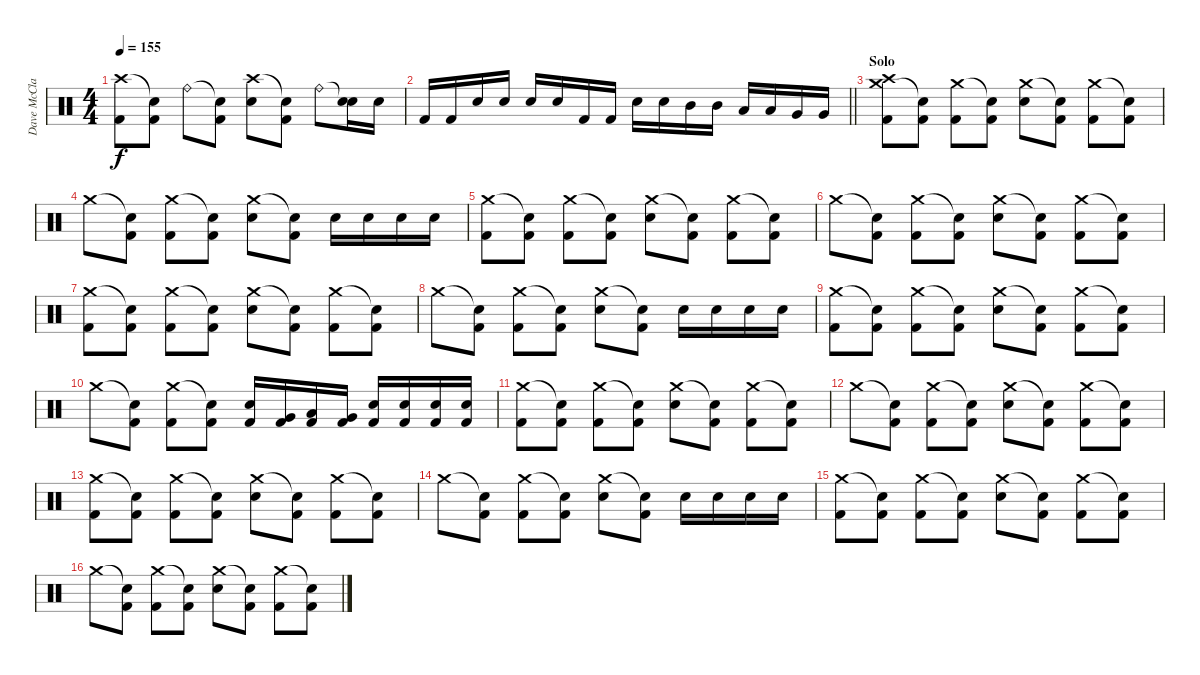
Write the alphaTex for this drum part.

\track ("Dave McClain (Drums)" "Dave McCla") {instrument percussion}
\staff {score}
\articulation defaults
\ts (4 4)
\tempo 155
\clef neutral
\ks c
("Crash high (hit)" "Kick (hit) 2").8{dy f} ("Snare (hit)"{t} "Kick (hit) 2").8 "Ride (bell)".8 ("Snare (hit)"{t} "Kick (hit) 2").8 ("Crash high (hit)" "Electric Snare (hit)").8 ("Snare (hit)"{t} "Kick (hit) 2").8 "Ride (bell)".8 ("Snare (hit)"{t} "Electric Snare (hit)").16 "Electric Snare (hit)".16 |
\barLineRight lightlight "Kick (hit) 2".16 "Kick (hit) 2".16 "Electric Snare (hit)".16 "Electric Snare (hit)".16 "Electric Snare (hit)".16 "Electric Snare (hit)".16 "Kick (hit) 2".16 "Kick (hit) 2".16 "Electric Snare (hit)".16 "Electric Snare (hit)".16 "Mid Tom (hit)".16 "Mid Tom (hit)".16 "Low Tom (hit)".16 "Low Tom (hit)".16 "Very Low Tom (hit)".16 "Very Low Tom (hit)".16
|
\section ("" "Solo")
("Crash medium (hit)" "Crash high (hit)" "Kick (hit) 2").8 ("Snare (hit)"{t} "Kick (hit) 2").8 ("Crash medium (hit)" "Kick (hit) 2").8 ("Snare (hit)"{t} "Kick (hit) 2").8 ("Crash medium (hit)" "Electric Snare (hit)").8 ("Snare (hit)"{t} "Kick (hit) 2").8 ("Crash medium (hit)" "Kick (hit) 2").8 ("Snare (hit)"{t} "Kick (hit) 2").8 |
"Crash medium (hit)".8 ("Snare (hit)"{t} "Kick (hit) 2").8 ("Crash medium (hit)" "Kick (hit) 2").8 ("Snare (hit)"{t} "Kick (hit) 2").8 ("Crash medium (hit)" "Electric Snare (hit)").8 ("Snare (hit)"{t} "Kick (hit) 2").8 "Electric Snare (hit)".16 "Electric Snare (hit)".16 "Electric Snare (hit)".16 "Electric Snare (hit)".16 |
("Crash medium (hit)" "Kick (hit) 2").8 ("Snare (hit)"{t} "Kick (hit) 2").8 ("Crash medium (hit)" "Kick (hit) 2").8 ("Snare (hit)"{t} "Kick (hit) 2").8 ("Crash medium (hit)" "Electric Snare (hit)").8 ("Snare (hit)"{t} "Kick (hit) 2").8 ("Crash medium (hit)" "Kick (hit) 2").8 ("Snare (hit)"{t} "Kick (hit) 2").8 |
"Crash medium (hit)".8 ("Snare (hit)"{t} "Kick (hit) 2").8 ("Crash medium (hit)" "Kick (hit) 2").8 ("Snare (hit)"{t} "Kick (hit) 2").8 ("Crash medium (hit)" "Electric Snare (hit)").8 ("Snare (hit)"{t} "Kick (hit) 2").8 ("Crash medium (hit)" "Kick (hit) 2").8 ("Snare (hit)"{t} "Kick (hit) 2").8 |
("Crash medium (hit)" "Kick (hit) 2").8 ("Snare (hit)"{t} "Kick (hit) 2").8 ("Crash medium (hit)" "Kick (hit) 2").8 ("Snare (hit)"{t} "Kick (hit) 2").8 ("Crash medium (hit)" "Electric Snare (hit)").8 ("Snare (hit)"{t} "Kick (hit) 2").8 ("Crash medium (hit)" "Kick (hit) 2").8 ("Snare (hit)"{t} "Kick (hit) 2").8 |
"Crash medium (hit)".8 ("Snare (hit)"{t} "Kick (hit) 2").8 ("Crash medium (hit)" "Kick (hit) 2").8 ("Snare (hit)"{t} "Kick (hit) 2").8 ("Crash medium (hit)" "Electric Snare (hit)").8 ("Snare (hit)"{t} "Kick (hit) 2").8 "Electric Snare (hit)".16 "Electric Snare (hit)".16 "Electric Snare (hit)".16 "Electric Snare (hit)".16 |
("Crash medium (hit)" "Kick (hit) 2").8 ("Snare (hit)"{t} "Kick (hit) 2").8 ("Crash medium (hit)" "Kick (hit) 2").8 ("Snare (hit)"{t} "Kick (hit) 2").8 ("Crash medium (hit)" "Electric Snare (hit)").8 ("Snare (hit)"{t} "Kick (hit) 2").8 ("Crash medium (hit)" "Kick (hit) 2").8 ("Snare (hit)"{t} "Kick (hit) 2").8 |
"Crash medium (hit)".8 ("Snare (hit)"{t} "Kick (hit) 2").8 ("Crash medium (hit)" "Kick (hit) 2").8 ("Snare (hit)"{t} "Kick (hit) 2").8 ("Electric Snare (hit)" "Kick (hit) 2").16 ("Very Low Tom (hit)" "Kick (hit) 2").16 ("Low Tom (hit)" "Kick (hit) 2").16 ("Very Low Tom (hit)" "Kick (hit) 2").16 ("Electric Snare (hit)" "Kick (hit) 2").16 ("Electric Snare (hit)" "Kick (hit) 2").16 ("Electric Snare (hit)" "Kick (hit) 2").16 ("Electric Snare (hit)" "Kick (hit) 2").16 |
("Crash medium (hit)" "Kick (hit) 2").8 ("Snare (hit)"{t} "Kick (hit) 2").8 ("Crash medium (hit)" "Kick (hit) 2").8 ("Snare (hit)"{t} "Kick (hit) 2").8 ("Crash medium (hit)" "Electric Snare (hit)").8 ("Snare (hit)"{t} "Kick (hit) 2").8 ("Crash medium (hit)" "Kick (hit) 2").8 ("Snare (hit)"{t} "Kick (hit) 2").8 |
"Crash medium (hit)".8 ("Snare (hit)"{t} "Kick (hit) 2").8 ("Crash medium (hit)" "Kick (hit) 2").8 ("Snare (hit)"{t} "Kick (hit) 2").8 ("Crash medium (hit)" "Electric Snare (hit)").8 ("Snare (hit)"{t} "Kick (hit) 2").8 ("Crash medium (hit)" "Kick (hit) 2").8 ("Snare (hit)"{t} "Kick (hit) 2").8 |
("Crash medium (hit)" "Kick (hit) 2").8 ("Snare (hit)"{t} "Kick (hit) 2").8 ("Crash medium (hit)" "Kick (hit) 2").8 ("Snare (hit)"{t} "Kick (hit) 2").8 ("Crash medium (hit)" "Electric Snare (hit)").8 ("Snare (hit)"{t} "Kick (hit) 2").8 ("Crash medium (hit)" "Kick (hit) 2").8 ("Snare (hit)"{t} "Kick (hit) 2").8 |
"Crash medium (hit)".8 ("Snare (hit)"{t} "Kick (hit) 2").8 ("Crash medium (hit)" "Kick (hit) 2").8 ("Snare (hit)"{t} "Kick (hit) 2").8 ("Crash medium (hit)" "Electric Snare (hit)").8 ("Snare (hit)"{t} "Kick (hit) 2").8 "Electric Snare (hit)".16 "Electric Snare (hit)".16 "Electric Snare (hit)".16 "Electric Snare (hit)".16 |
("Crash medium (hit)" "Kick (hit) 2").8 ("Snare (hit)"{t} "Kick (hit) 2").8 ("Crash medium (hit)" "Kick (hit) 2").8 ("Snare (hit)"{t} "Kick (hit) 2").8 ("Crash medium (hit)" "Electric Snare (hit)").8 ("Snare (hit)"{t} "Kick (hit) 2").8 ("Crash medium (hit)" "Kick (hit) 2").8 ("Snare (hit)"{t} "Kick (hit) 2").8 |
"Crash medium (hit)".8 ("Snare (hit)"{t} "Kick (hit) 2").8 ("Crash medium (hit)" "Kick (hit) 2").8 ("Snare (hit)"{t} "Kick (hit) 2").8 ("Crash medium (hit)" "Electric Snare (hit)").8 ("Snare (hit)"{t} "Kick (hit) 2").8 ("Crash medium (hit)" "Kick (hit) 2").8 ("Snare (hit)"{t} "Kick (hit) 2").8
